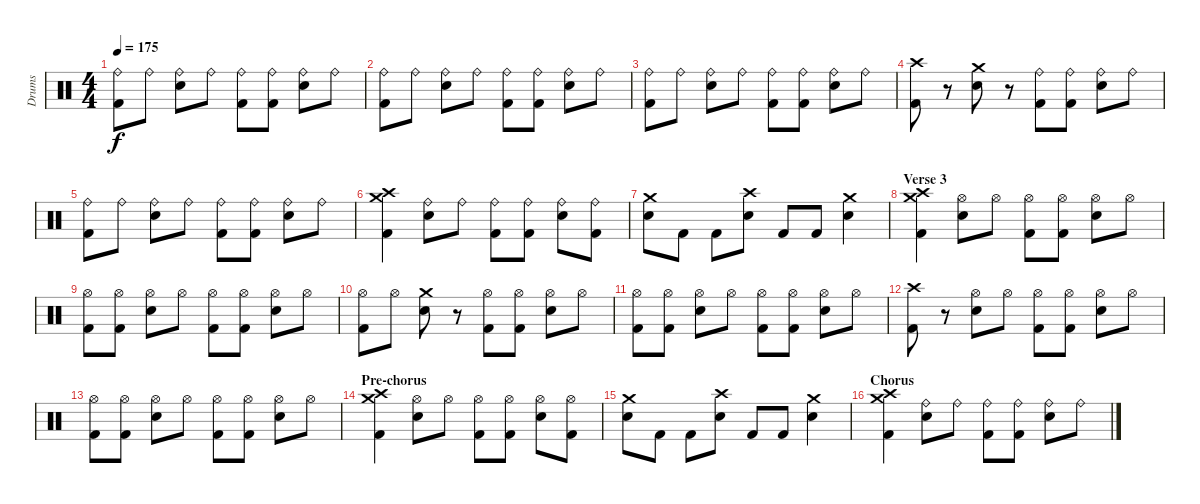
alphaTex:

\track ("Drums" "Drums") {instrument percussion}
\staff {score}
\articulation defaults
\ts (4 4)
\tempo 175
\clef neutral
\ks c
("Ride (bell)" "Kick (hit) 2").8{dy f} "Ride (bell)".8 ("Ride (bell)" "Electric Snare (hit)").8 "Ride (bell)".8 ("Ride (bell)" "Kick (hit) 2").8 ("Ride (bell)" "Kick (hit) 2").8 ("Ride (bell)" "Electric Snare (hit)").8 "Ride (bell)".8 |
("Ride (bell)" "Kick (hit) 2").8 "Ride (bell)".8 ("Ride (bell)" "Electric Snare (hit)").8 "Ride (bell)".8 ("Ride (bell)" "Kick (hit) 2").8 ("Ride (bell)" "Kick (hit) 2").8 ("Ride (bell)" "Electric Snare (hit)").8 "Ride (bell)".8 |
("Ride (bell)" "Kick (hit) 2").8 "Ride (bell)".8 ("Ride (bell)" "Electric Snare (hit)").8 "Ride (bell)".8 ("Ride (bell)" "Kick (hit) 2").8 ("Ride (bell)" "Kick (hit) 2").8 ("Ride (bell)" "Electric Snare (hit)").8 "Ride (bell)".8 |
("Crash high (hit)" "Kick (hit) 2").8 r.8 ("Crash medium (hit)" "Electric Snare (hit)").8 r.8 ("Ride (bell)" "Kick (hit) 2").8 ("Ride (bell)" "Kick (hit) 2").8 ("Ride (bell)" "Electric Snare (hit)").8 "Ride (bell)".8 |
("Ride (bell)" "Kick (hit) 2").8 "Ride (bell)".8 ("Ride (bell)" "Electric Snare (hit)").8 "Ride (bell)".8 ("Ride (bell)" "Kick (hit) 2").8 ("Ride (bell)" "Kick (hit) 2").8 ("Ride (bell)" "Electric Snare (hit)").8 "Ride (bell)".8 |
("Crash high (hit)" "Crash medium (hit)" "Kick (hit) 2").4 ("Ride (bell)" "Electric Snare (hit)").8 "Ride (bell)".8 ("Ride (bell)" "Kick (hit) 2").8 ("Ride (bell)" "Kick (hit) 2").8 ("Ride (bell)" "Electric Snare (hit)").8 ("Ride (bell)" "Kick (hit) 2").8 |
("Crash medium (hit)" "Electric Snare (hit)").8 "Kick (hit) 2".8 "Kick (hit) 2".8 ("Crash high (hit)" "Electric Snare (hit)").8 "Kick (hit) 2".8 "Kick (hit) 2".8 ("Crash medium (hit)" "Electric Snare (hit)").4 |
\section ("" "Verse 3")
("Crash high (hit)" "Crash medium (hit)" "Kick (hit) 2").4 ("Hi-Hat (open)" "Electric Snare (hit)").8 "Hi-Hat (open)".8 ("Hi-Hat (open)" "Kick (hit) 2").8 ("Hi-Hat (open)" "Kick (hit) 2").8 ("Hi-Hat (open)" "Electric Snare (hit)").8 "Hi-Hat (open)".8 |
("Hi-Hat (open)" "Kick (hit) 2").8 ("Hi-Hat (open)" "Kick (hit) 2").8 ("Hi-Hat (open)" "Electric Snare (hit)").8 "Hi-Hat (open)".8 ("Hi-Hat (open)" "Kick (hit) 2").8 ("Hi-Hat (open)" "Kick (hit) 2").8 ("Hi-Hat (open)" "Electric Snare (hit)").8 "Hi-Hat (open)".8 |
("Hi-Hat (open)" "Kick (hit) 2").8 "Hi-Hat (open)".8 ("Crash medium (hit)" "Electric Snare (hit)").8 r.8 ("Hi-Hat (open)" "Kick (hit) 2").8 ("Hi-Hat (open)" "Kick (hit) 2").8 ("Hi-Hat (open)" "Electric Snare (hit)").8 "Hi-Hat (open)".8 |
("Hi-Hat (open)" "Kick (hit) 2").8 ("Hi-Hat (open)" "Kick (hit) 2").8 ("Hi-Hat (open)" "Electric Snare (hit)").8 "Hi-Hat (open)".8 ("Hi-Hat (open)" "Kick (hit) 2").8 ("Hi-Hat (open)" "Kick (hit) 2").8 ("Hi-Hat (open)" "Electric Snare (hit)").8 "Hi-Hat (open)".8 |
("Crash high (hit)" "Kick (hit) 2").8 r.8 ("Hi-Hat (open)" "Electric Snare (hit)").8 "Hi-Hat (open)".8 ("Hi-Hat (open)" "Kick (hit) 2").8 ("Hi-Hat (open)" "Kick (hit) 2").8 ("Hi-Hat (open)" "Electric Snare (hit)").8 "Hi-Hat (open)".8 |
("Hi-Hat (open)" "Kick (hit) 2").8 ("Hi-Hat (open)" "Kick (hit) 2").8 ("Hi-Hat (open)" "Electric Snare (hit)").8 "Hi-Hat (open)".8 ("Hi-Hat (open)" "Kick (hit) 2").8 ("Hi-Hat (open)" "Kick (hit) 2").8 ("Hi-Hat (open)" "Electric Snare (hit)").8 "Hi-Hat (open)".8 |
\section ("" "Pre-chorus")
("Crash high (hit)" "Crash medium (hit)" "Kick (hit) 2").4 ("Hi-Hat (open)" "Electric Snare (hit)").8 "Hi-Hat (open)".8 ("Hi-Hat (open)" "Kick (hit) 2").8 ("Hi-Hat (open)" "Kick (hit) 2").8 ("Hi-Hat (open)" "Electric Snare (hit)").8 ("Hi-Hat (open)" "Kick (hit) 2").8 |
("Crash medium (hit)" "Electric Snare (hit)").8 "Kick (hit) 2".8 "Kick (hit) 2".8 ("Crash high (hit)" "Electric Snare (hit)").8 "Kick (hit) 2".8 "Kick (hit) 2".8 ("Crash medium (hit)" "Electric Snare (hit)").4 |
\section ("" "Chorus")
("Crash high (hit)" "Crash medium (hit)" "Kick (hit) 2").4 ("Ride (bell)" "Electric Snare (hit)").8 "Ride (bell)".8 ("Ride (bell)" "Kick (hit) 2").8 ("Ride (bell)" "Kick (hit) 2").8 ("Ride (bell)" "Electric Snare (hit)").8 "Ride (bell)".8
